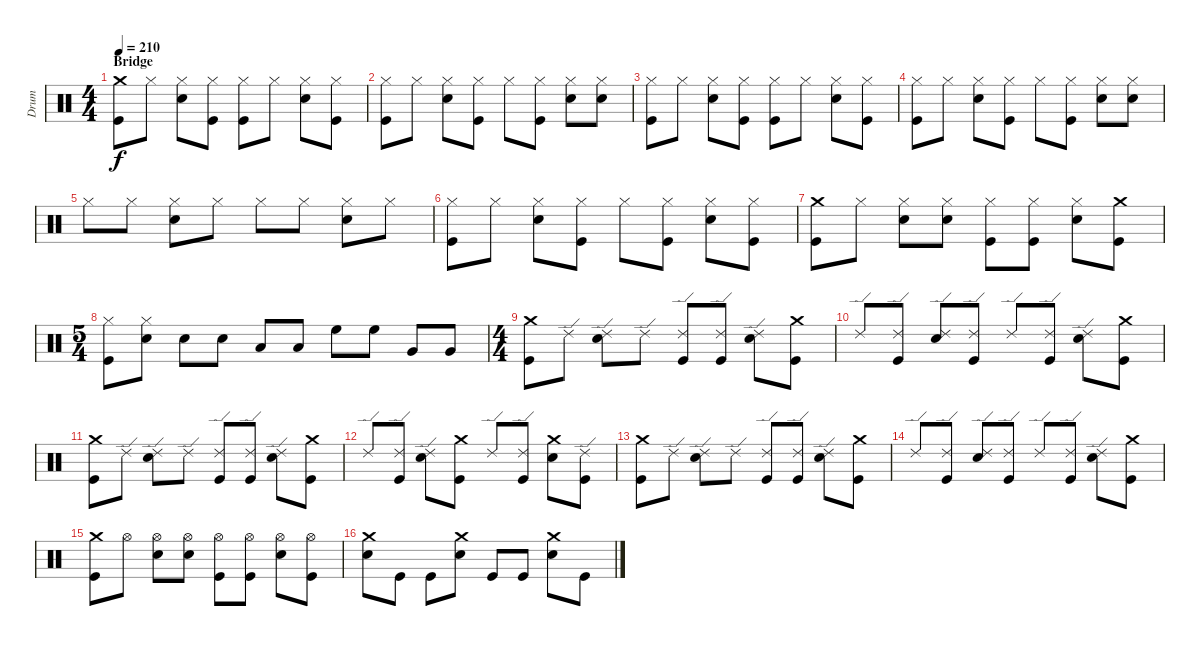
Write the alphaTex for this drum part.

\track ("Drum" "Drum") {instrument percussion}
\staff {score}
\articulation defaults
\ts (4 4)
\section ("" "Bridge")
\tempo 210
\clef neutral
\ks c
("Crash medium (hit)" "Kick (hit)").8{dy f} "Hi-Hat (closed)".8 ("Hi-Hat (closed)" "Snare (hit) 2").8 ("Hi-Hat (closed)" "Kick (hit)").8 ("Hi-Hat (closed)" "Kick (hit)").8 "Hi-Hat (closed)".8 ("Hi-Hat (closed)" "Snare (hit) 2").8 ("Hi-Hat (closed)" "Kick (hit)").8 |
("Hi-Hat (closed)" "Kick (hit)").8 "Hi-Hat (closed)".8 ("Hi-Hat (closed)" "Snare (hit) 2").8 ("Hi-Hat (closed)" "Kick (hit)").8 "Hi-Hat (closed)".8 ("Hi-Hat (closed)" "Kick (hit)").8 ("Hi-Hat (closed)" "Snare (hit) 2").8 ("Hi-Hat (closed)" "Snare (hit) 2").8 |
("Hi-Hat (closed)" "Kick (hit)").8 "Hi-Hat (closed)".8 ("Hi-Hat (closed)" "Snare (hit) 2").8 ("Hi-Hat (closed)" "Kick (hit)").8 ("Hi-Hat (closed)" "Kick (hit)").8 "Hi-Hat (closed)".8 ("Hi-Hat (closed)" "Snare (hit) 2").8 ("Hi-Hat (closed)" "Kick (hit)").8 |
("Hi-Hat (closed)" "Kick (hit)").8 "Hi-Hat (closed)".8 ("Hi-Hat (closed)" "Snare (hit) 2").8 ("Hi-Hat (closed)" "Kick (hit)").8 "Hi-Hat (closed)".8 ("Hi-Hat (closed)" "Kick (hit)").8 ("Hi-Hat (closed)" "Snare (hit) 2").8 ("Hi-Hat (closed)" "Snare (hit) 2").8 |
"Hi-Hat (closed)".8 "Hi-Hat (closed)".8 ("Hi-Hat (closed)" "Snare (hit) 2").8 "Hi-Hat (closed)".8 "Hi-Hat (closed)".8 "Hi-Hat (closed)".8 ("Hi-Hat (closed)" "Snare (hit) 2").8 "Hi-Hat (closed)".8 |
("Hi-Hat (closed)" "Kick (hit)").8 "Hi-Hat (closed)".8 ("Hi-Hat (closed)" "Snare (hit) 2").8 ("Hi-Hat (closed)" "Kick (hit)").8 "Hi-Hat (closed)".8 ("Hi-Hat (closed)" "Kick (hit)").8 ("Hi-Hat (closed)" "Snare (hit) 2").8 ("Hi-Hat (closed)" "Kick (hit)").8 |
("Crash medium (hit)" "Kick (hit)").8 "Hi-Hat (closed)".8 ("Hi-Hat (closed)" "Snare (hit) 2").8 ("Hi-Hat (closed)" "Snare (hit) 2").8 ("Hi-Hat (closed)" "Kick (hit)").8 ("Hi-Hat (closed)" "Kick (hit)").8 ("Hi-Hat (closed)" "Snare (hit) 2").8 ("Crash medium (hit)" "Kick (hit)").8 |
\ts (5 4)
("Hi-Hat (closed)" "Kick (hit)").8 ("Hi-Hat (closed)" "Snare (hit) 2").8 "Snare (hit) 2".8 "Snare (hit) 2".8 "Low Tom (hit)".8 "Low Tom (hit)".8 "High Floor Tom (hit)".8 "High Floor Tom (hit)".8 "Very Low Tom (hit)".8 "Very Low Tom (hit)".8 |
\ts (4 4)
("Crash medium (hit)" "Kick (hit)").8 "Ride (edge) 2".8 ("Ride (edge) 2" "Snare (hit) 2").8 "Ride (edge) 2".8 ("Ride (edge) 2" "Kick (hit)").8 ("Ride (edge) 2" "Kick (hit)").8 ("Ride (edge) 2" "Snare (hit) 2").8 ("Crash medium (hit)" "Kick (hit)").8 |
"Ride (edge) 2".8 ("Ride (edge) 2" "Kick (hit)").8 ("Ride (edge) 2" "Snare (hit) 2").8 ("Ride (edge) 2" "Kick (hit)").8 "Ride (edge) 2".8 ("Ride (edge) 2" "Kick (hit)").8 ("Ride (edge) 2" "Snare (hit) 2").8 ("Crash medium (hit)" "Kick (hit)").8 |
("Crash medium (hit)" "Kick (hit)").8 "Ride (edge) 2".8 ("Ride (edge) 2" "Snare (hit) 2").8 "Ride (edge) 2".8 ("Ride (edge) 2" "Kick (hit)").8 ("Ride (edge) 2" "Kick (hit)").8 ("Ride (edge) 2" "Snare (hit) 2").8 ("Crash medium (hit)" "Kick (hit)").8 |
"Ride (edge) 2".8 ("Ride (edge) 2" "Kick (hit)").8 ("Ride (edge) 2" "Snare (hit) 2").8 ("Crash medium (hit)" "Kick (hit)").8 "Ride (edge) 2".8 ("Ride (edge) 2" "Kick (hit)").8 ("Crash medium (hit)" "Snare (hit) 2").8 ("Ride (edge) 2" "Kick (hit)").8 |
("Crash medium (hit)" "Kick (hit)").8 "Ride (edge) 2".8 ("Ride (edge) 2" "Snare (hit) 2").8 "Ride (edge) 2".8 ("Ride (edge) 2" "Kick (hit)").8 ("Ride (edge) 2" "Kick (hit)").8 ("Ride (edge) 2" "Snare (hit) 2").8 ("Crash medium (hit)" "Kick (hit)").8 |
"Ride (edge) 2".8 ("Ride (edge) 2" "Kick (hit)").8 ("Ride (edge) 2" "Snare (hit) 2").8 ("Ride (edge) 2" "Kick (hit)").8 "Ride (edge) 2".8 ("Ride (edge) 2" "Kick (hit)").8 ("Ride (edge) 2" "Snare (hit) 2").8 ("Crash medium (hit)" "Kick (hit)").8 |
("Crash medium (hit)" "Kick (hit)").8 "Hi-Hat (open)".8 ("Hi-Hat (open)" "Snare (hit) 2").8 ("Hi-Hat (open)" "Snare (hit) 2").8 ("Hi-Hat (open)" "Kick (hit)").8 ("Hi-Hat (open)" "Kick (hit)").8 ("Hi-Hat (open)" "Snare (hit) 2").8 ("Hi-Hat (open)" "Kick (hit)").8 |
("Crash medium (hit)" "Snare (hit) 2").8 "Kick (hit)".8 "Kick (hit)".8 ("Crash medium (hit)" "Snare (hit) 2").8 "Kick (hit)".8 "Kick (hit)".8 ("Crash medium (hit)" "Snare (hit) 2").8 "Kick (hit)".8
